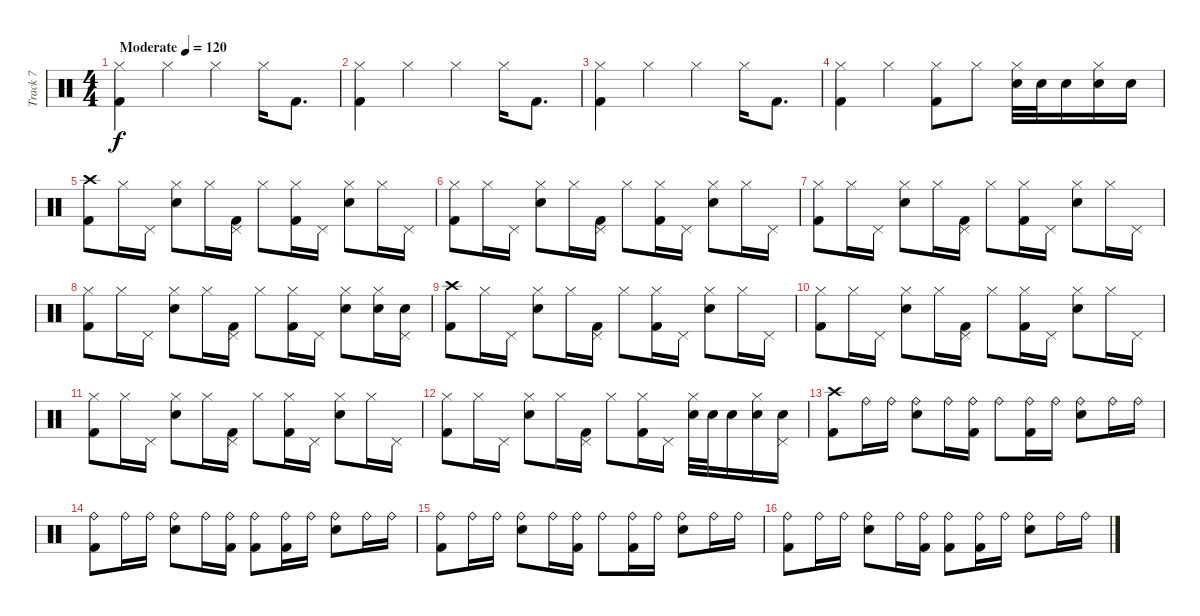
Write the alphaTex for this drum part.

\track ("Track 7" "Track 7") {instrument percussion}
\staff {score}
\articulation defaults
\ts (4 4)
\tempo (120 "Moderate")
\clef neutral
\ks c
("Hi-Hat (closed)" "Kick (hit) 2").4{dy f} "Hi-Hat (closed)".4 "Hi-Hat (closed)".4 "Hi-Hat (closed)".16 "Kick (hit) 2".8{d} |
("Hi-Hat (closed)" "Kick (hit) 2").4 "Hi-Hat (closed)".4 "Hi-Hat (closed)".4 "Hi-Hat (closed)".16 "Kick (hit) 2".8{d} |
("Hi-Hat (closed)" "Kick (hit) 2").4 "Hi-Hat (closed)".4 "Hi-Hat (closed)".4 "Hi-Hat (closed)".16 "Kick (hit) 2".8{d} |
("Hi-Hat (closed)" "Kick (hit) 2").4 "Hi-Hat (closed)".4 ("Hi-Hat (closed)" "Kick (hit) 2").8 "Hi-Hat (closed)".8 ("Hi-Hat (closed)" "Snare (hit) 2").32 "Snare (hit) 2".32 "Snare (hit) 2".16 ("Hi-Hat (closed)" "Snare (hit) 2").16 "Snare (hit) 2".16 |
("Crash high (hit)" "Kick (hit) 2").8 "Hi-Hat (closed)".16 "Pedal Hi-Hat (hit)".16 ("Hi-Hat (closed)" "Snare (hit) 2").8 "Hi-Hat (closed)".16 ("Pedal Hi-Hat (hit)" "Kick (hit) 2").16 "Hi-Hat (closed)".8 ("Hi-Hat (closed)" "Kick (hit) 2").16 "Pedal Hi-Hat (hit)".16 ("Hi-Hat (closed)" "Snare (hit) 2").8 "Hi-Hat (closed)".16 "Pedal Hi-Hat (hit)".16 |
("Hi-Hat (closed)" "Kick (hit) 2").8 "Hi-Hat (closed)".16 "Pedal Hi-Hat (hit)".16 ("Hi-Hat (closed)" "Snare (hit) 2").8 "Hi-Hat (closed)".16 ("Pedal Hi-Hat (hit)" "Kick (hit) 2").16 "Hi-Hat (closed)".8 ("Hi-Hat (closed)" "Kick (hit) 2").16 "Pedal Hi-Hat (hit)".16 ("Hi-Hat (closed)" "Snare (hit) 2").8 "Hi-Hat (closed)".16 "Pedal Hi-Hat (hit)".16 |
("Hi-Hat (closed)" "Kick (hit) 2").8 "Hi-Hat (closed)".16 "Pedal Hi-Hat (hit)".16 ("Hi-Hat (closed)" "Snare (hit) 2").8 "Hi-Hat (closed)".16 ("Pedal Hi-Hat (hit)" "Kick (hit) 2").16 "Hi-Hat (closed)".8 ("Hi-Hat (closed)" "Kick (hit) 2").16 "Pedal Hi-Hat (hit)".16 ("Hi-Hat (closed)" "Snare (hit) 2").8 "Hi-Hat (closed)".16 "Pedal Hi-Hat (hit)".16 |
("Hi-Hat (closed)" "Kick (hit) 2").8 "Hi-Hat (closed)".16 "Pedal Hi-Hat (hit)".16 ("Hi-Hat (closed)" "Snare (hit) 2").8 "Hi-Hat (closed)".16 ("Pedal Hi-Hat (hit)" "Kick (hit) 2").16 "Hi-Hat (closed)".8 ("Hi-Hat (closed)" "Kick (hit) 2").16 "Pedal Hi-Hat (hit)".16 ("Hi-Hat (closed)" "Snare (hit) 2").8 ("Hi-Hat (closed)" "Snare (hit) 2").16 ("Pedal Hi-Hat (hit)" "Snare (hit) 2").16 |
("Crash high (hit)" "Kick (hit) 2").8 "Hi-Hat (closed)".16 "Pedal Hi-Hat (hit)".16 ("Hi-Hat (closed)" "Snare (hit) 2").8 "Hi-Hat (closed)".16 ("Pedal Hi-Hat (hit)" "Kick (hit) 2").16 "Hi-Hat (closed)".8 ("Hi-Hat (closed)" "Kick (hit) 2").16 "Pedal Hi-Hat (hit)".16 ("Hi-Hat (closed)" "Snare (hit) 2").8 "Hi-Hat (closed)".16 "Pedal Hi-Hat (hit)".16 |
("Hi-Hat (closed)" "Kick (hit) 2").8 "Hi-Hat (closed)".16 "Pedal Hi-Hat (hit)".16 ("Hi-Hat (closed)" "Snare (hit) 2").8 "Hi-Hat (closed)".16 ("Pedal Hi-Hat (hit)" "Kick (hit) 2").16 "Hi-Hat (closed)".8 ("Hi-Hat (closed)" "Kick (hit) 2").16 "Pedal Hi-Hat (hit)".16 ("Hi-Hat (closed)" "Snare (hit) 2").8 "Hi-Hat (closed)".16 "Pedal Hi-Hat (hit)".16 |
("Hi-Hat (closed)" "Kick (hit) 2").8 "Hi-Hat (closed)".16 "Pedal Hi-Hat (hit)".16 ("Hi-Hat (closed)" "Snare (hit) 2").8 "Hi-Hat (closed)".16 ("Pedal Hi-Hat (hit)" "Kick (hit) 2").16 "Hi-Hat (closed)".8 ("Hi-Hat (closed)" "Kick (hit) 2").16 "Pedal Hi-Hat (hit)".16 ("Hi-Hat (closed)" "Snare (hit) 2").8 "Hi-Hat (closed)".16 "Pedal Hi-Hat (hit)".16 |
("Hi-Hat (closed)" "Kick (hit) 2").8 "Hi-Hat (closed)".16 "Pedal Hi-Hat (hit)".16 ("Hi-Hat (closed)" "Snare (hit) 2").8 "Hi-Hat (closed)".16 ("Pedal Hi-Hat (hit)" "Kick (hit) 2").16 "Hi-Hat (closed)".8 ("Hi-Hat (closed)" "Kick (hit) 2").16 "Pedal Hi-Hat (hit)".16 ("Hi-Hat (closed)" "Snare (hit) 2").32 "Snare (hit) 2".32 "Snare (hit) 2".16 ("Hi-Hat (closed)" "Snare (hit) 2").16 ("Pedal Hi-Hat (hit)" "Snare (hit) 2").16 |
("Crash high (hit)" "Kick (hit) 2").8 "Ride (bell)".16 "Ride (bell)".16 ("Ride (bell)" "Snare (hit) 2").8 "Ride (bell)".16 ("Ride (bell)" "Kick (hit) 2").16 "Ride (bell)".8 ("Ride (bell)" "Kick (hit) 2").16 "Ride (bell)".16 ("Ride (bell)" "Snare (hit) 2").8 "Ride (bell)".16 "Ride (bell)".16 |
("Ride (bell)" "Kick (hit) 2").8 "Ride (bell)".16 "Ride (bell)".16 ("Ride (bell)" "Snare (hit) 2").8 "Ride (bell)".16 ("Ride (bell)" "Kick (hit) 2").16 ("Ride (bell)" "Kick (hit) 2").8 ("Ride (bell)" "Kick (hit) 2").16 "Ride (bell)".16 ("Ride (bell)" "Snare (hit) 2").8 "Ride (bell)".16 "Ride (bell)".16 |
("Ride (bell)" "Kick (hit) 2").8 "Ride (bell)".16 "Ride (bell)".16 ("Ride (bell)" "Snare (hit) 2").8 "Ride (bell)".16 ("Ride (bell)" "Kick (hit) 2").16 "Ride (bell)".8 ("Ride (bell)" "Kick (hit) 2").16 "Ride (bell)".16 ("Ride (bell)" "Snare (hit) 2").8 "Ride (bell)".16 "Ride (bell)".16 |
("Ride (bell)" "Kick (hit) 2").8 "Ride (bell)".16 "Ride (bell)".16 ("Ride (bell)" "Snare (hit) 2").8 "Ride (bell)".16 ("Ride (bell)" "Kick (hit) 2").16 ("Ride (bell)" "Kick (hit) 2").8 ("Ride (bell)" "Kick (hit) 2").16 "Ride (bell)".16 ("Ride (bell)" "Snare (hit) 2").8 "Ride (bell)".16 "Ride (bell)".16
